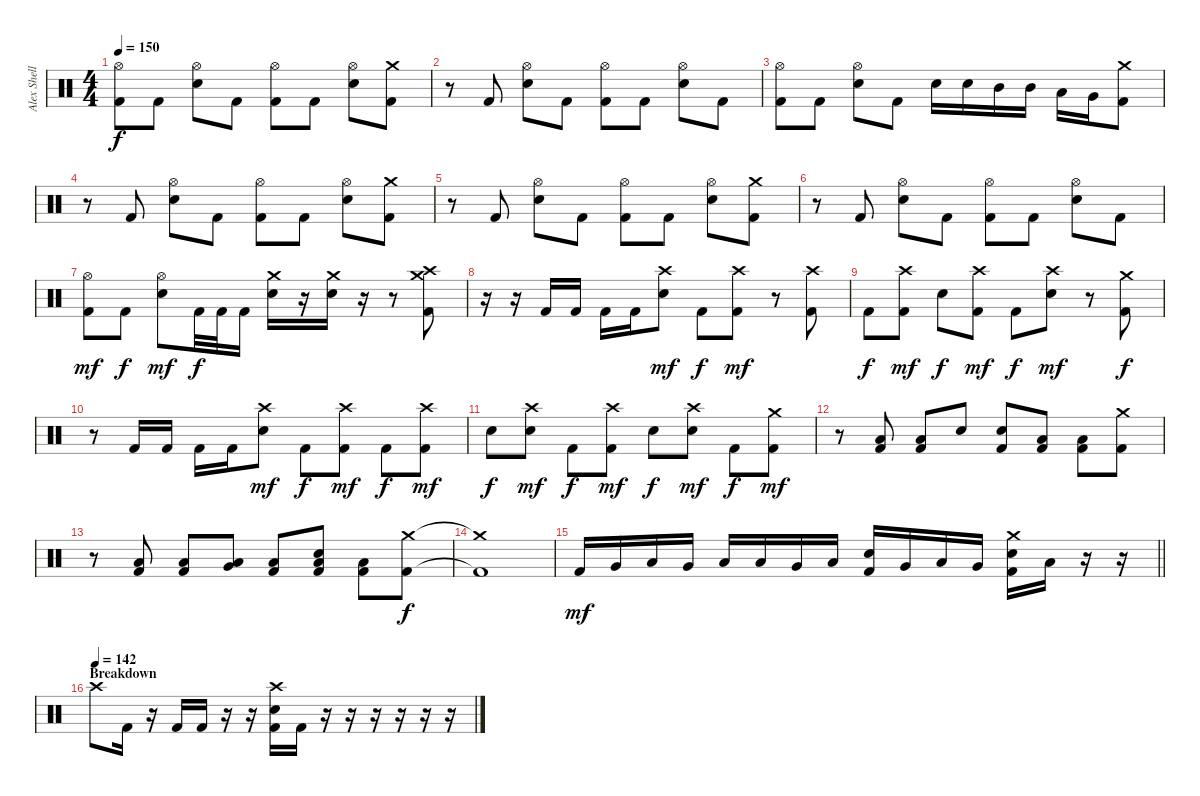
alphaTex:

\track ("Alex Shellnutt" "Alex Shell") {instrument percussion}
\staff {score}
\articulation defaults
\ts (4 4)
\tempo 150
\clef neutral
\ks c
("Hi-Hat (open)" "Kick (hit) 2").8{dy f} "Kick (hit) 2".8 ("Hi-Hat (open)" "Snare (hit) 2").8 "Kick (hit) 2".8 ("Hi-Hat (open)" "Kick (hit) 2").8 "Kick (hit) 2".8 ("Hi-Hat (open)" "Snare (hit) 2").8 ("Crash medium (hit)" "Kick (hit) 2").8 |
r.8 "Kick (hit) 2".8 ("Hi-Hat (open)" "Snare (hit) 2").8 "Kick (hit) 2".8 ("Hi-Hat (open)" "Kick (hit) 2").8 "Kick (hit) 2".8 ("Hi-Hat (open)" "Snare (hit) 2").8 "Kick (hit) 2".8 |
("Hi-Hat (open)" "Kick (hit) 2").8 "Kick (hit) 2".8 ("Hi-Hat (open)" "Snare (hit) 2").8 "Kick (hit) 2".8 "Snare (hit) 2".16 "Snare (hit) 2".16 "Mid Tom (hit)".16 "Mid Tom (hit)".16 "Low Tom (hit)".16 "Very Low Tom (hit)".16 ("Crash medium (hit)" "Kick (hit) 2").8 |
r.8 "Kick (hit) 2".8 ("Hi-Hat (open)" "Snare (hit) 2").8 "Kick (hit) 2".8 ("Hi-Hat (open)" "Kick (hit) 2").8 "Kick (hit) 2".8 ("Hi-Hat (open)" "Snare (hit) 2").8 ("Crash medium (hit)" "Kick (hit) 2").8 |
r.8 "Kick (hit) 2".8 ("Hi-Hat (open)" "Snare (hit) 2").8 "Kick (hit) 2".8 ("Hi-Hat (open)" "Kick (hit) 2").8 "Kick (hit) 2".8 ("Hi-Hat (open)" "Snare (hit) 2").8 ("Crash medium (hit)" "Kick (hit) 2").8 |
r.8 "Kick (hit) 2".8 ("Hi-Hat (open)" "Snare (hit) 2").8 "Kick (hit) 2".8 ("Hi-Hat (open)" "Kick (hit) 2").8 "Kick (hit) 2".8 ("Hi-Hat (open)" "Snare (hit) 2").8 "Kick (hit) 2".8 |
("Hi-Hat (open)" "Kick (hit) 2").8{dy mf} "Kick (hit) 2".8{dy f} ("Hi-Hat (open)" "Snare (hit) 2").8{dy mf} "Kick (hit) 2".32{dy f} "Kick (hit) 2".32 "Kick (hit) 2".16 ("Crash medium (hit)" "Snare (hit) 2").16 r.16 ("Crash medium (hit)" "Snare (hit) 2").16 r.16 r.8 ("Crash medium (hit)" "Crash high (hit)" "Kick (hit) 2").8 |
r.16 r.16 "Kick (hit) 2".16 "Kick (hit) 2".16 "Kick (hit) 2".16 "Kick (hit) 2".16 ("Crash high (hit)" "Snare (hit) 2").8{dy mf} "Kick (hit) 2".8{dy f} ("Crash high (hit)" "Kick (hit) 2").8{dy mf} r.8 ("Crash high (hit)" "Kick (hit) 2").8 |
"Kick (hit) 2".8{dy f} ("Crash high (hit)" "Kick (hit) 2").8{dy mf} "Snare (hit) 2".8{dy f} ("Crash high (hit)" "Kick (hit) 2").8{dy mf} "Kick (hit) 2".8{dy f} ("Crash high (hit)" "Snare (hit) 2").8{dy mf} r.8 ("Crash medium (hit)" "Kick (hit) 2").8{dy f} |
r.8 "Kick (hit) 2".16 "Kick (hit) 2".16 "Kick (hit) 2".16 "Kick (hit) 2".16 ("Crash high (hit)" "Snare (hit) 2").8{dy mf} "Kick (hit) 2".8{dy f} ("Crash high (hit)" "Kick (hit) 2").8{dy mf} "Kick (hit) 2".8{dy f} ("Crash high (hit)" "Kick (hit) 2").8{dy mf} |
"Snare (hit) 2".8{dy f} ("Crash high (hit)" "Snare (hit) 2").8{dy mf} "Kick (hit) 2".8{dy f} ("Crash high (hit)" "Kick (hit) 2").8{dy mf} "Snare (hit) 2".8{dy f} ("Crash high (hit)" "Snare (hit) 2").8{dy mf} "Kick (hit) 2".8{dy f} ("Crash medium (hit)" "Kick (hit) 2").8{dy mf} |
r.8 ("Low Floor Tom (hit)" "Kick (hit) 2").8 ("Low Floor Tom (hit)" "Kick (hit) 2").8 "Snare (hit) 2".8 ("Snare (hit) 2" "Kick (hit) 2").8 ("Low Floor Tom (hit)" "Kick (hit) 2").8 ("Low Floor Tom (hit)" "Kick (hit) 2").8 ("Crash medium (hit)" "Kick (hit) 2").8 |
r.8 ("Low Floor Tom (hit)" "Kick (hit) 2").8 ("Low Floor Tom (hit)" "Kick (hit) 2").8 ("Very Low Tom (hit)" "Low Floor Tom (hit)").8 ("Low Floor Tom (hit)" "Kick (hit) 2").8 ("Snare (hit) 2" "Low Floor Tom (hit)" "Kick (hit) 2").8 ("Low Floor Tom (hit)" "Kick (hit) 2").8 ("Crash medium (hit)" "Kick (hit) 2").8{dy f} |
("Crash medium (hit)"{t} "Kick (hit) 2"{t}).1 |
\barLineRight lightlight "Kick (hit) 2".16{dy mf} "Very Low Tom (hit)".16 "Low Tom (hit)".16 "Very Low Tom (hit)".16 "Low Floor Tom (hit)".16 "Low Tom (hit)".16 "Very Low Tom (hit)".16 "Low Floor Tom (hit)".16
("Snare (hit) 2" "Kick (hit) 2").16 "Very Low Tom (hit)".16 "Low Tom (hit)".16 "Very Low Tom (hit)".16 ("Crash medium (hit)" "Snare (hit) 2" "Kick (hit) 2").16 "Low Floor Tom (hit)".16 r.16 r.16 |
\section ("" "Breakdown")
\tempo (142)
"Crash high (hit)".8 "Kick (hit) 2".16 r.16 "Kick (hit) 2".16 "Kick (hit) 2".16 r.16 r.16 ("Crash high (hit)" "Snare (hit) 2" "Kick (hit) 2").16 "Kick (hit) 2".16 r.16 r.16 r.16 r.16 r.16 r.16
